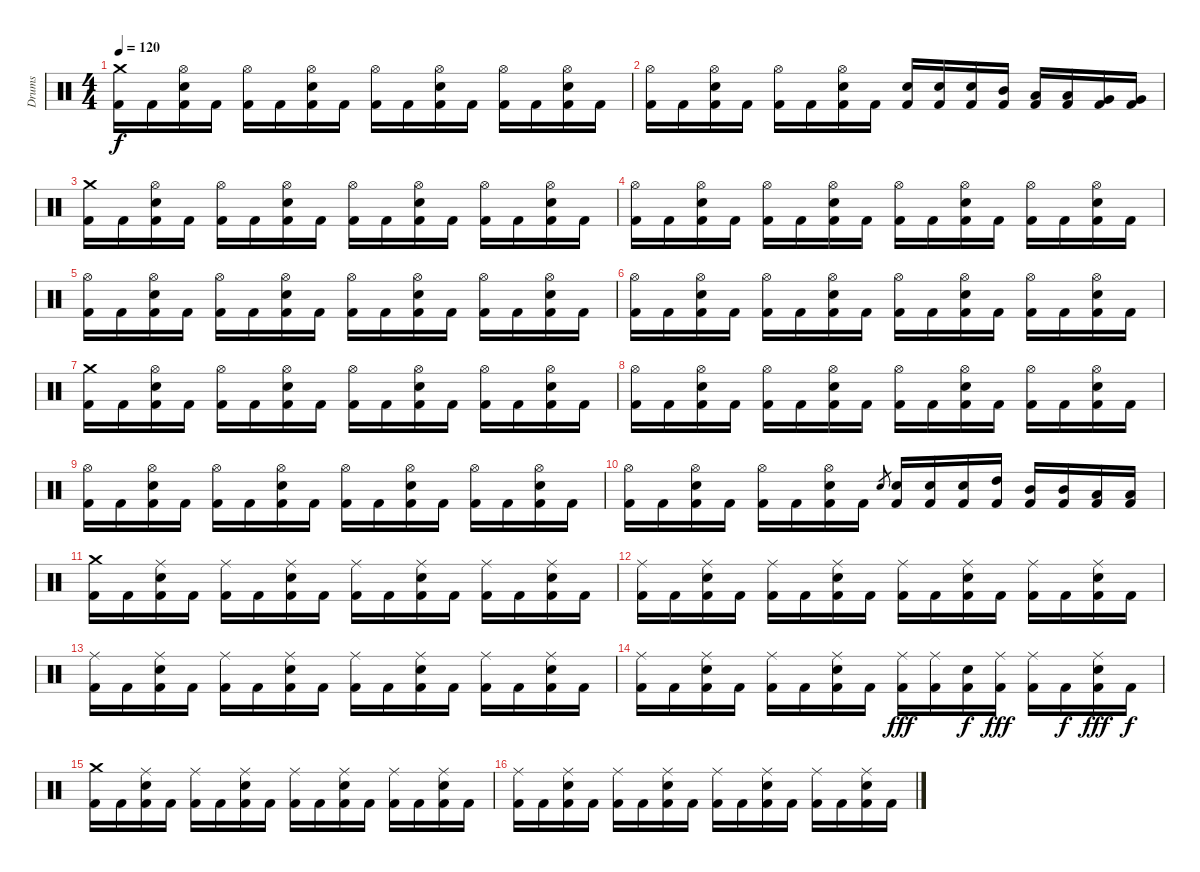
\track ("Drums" "Drums") {instrument percussion}
\staff {score}
\articulation defaults
\ts (4 4)
\tempo 120
\clef neutral
\ks c
("Kick (hit) 2" "Crash medium (hit)").16{dy f} "Kick (hit) 2".16 ("Kick (hit) 2" "Electric Snare (hit)" "Hi-Hat (open)").16 "Kick (hit) 2".16 ("Kick (hit) 2" "Hi-Hat (open)").16 "Kick (hit) 2".16 ("Kick (hit) 2" "Electric Snare (hit)" "Hi-Hat (open)").16 "Kick (hit) 2".16 ("Kick (hit) 2" "Hi-Hat (open)").16 "Kick (hit) 2".16 ("Kick (hit) 2" "Electric Snare (hit)" "Hi-Hat (open)").16 "Kick (hit) 2".16 ("Kick (hit) 2" "Hi-Hat (open)").16 "Kick (hit) 2".16 ("Kick (hit) 2" "Electric Snare (hit)" "Hi-Hat (open)").16 "Kick (hit) 2".16 |
("Kick (hit) 2" "Hi-Hat (open)").16 "Kick (hit) 2".16 ("Kick (hit) 2" "Electric Snare (hit)" "Hi-Hat (open)").16 "Kick (hit) 2".16 ("Kick (hit) 2" "Hi-Hat (open)").16 "Kick (hit) 2".16 ("Kick (hit) 2" "Electric Snare (hit)" "Hi-Hat (open)").16 "Kick (hit) 2".16 ("Kick (hit) 2" "Electric Snare (hit)").16 ("Kick (hit) 2" "Electric Snare (hit)").16 ("Kick (hit) 2" "Electric Snare (hit)").16 ("Kick (hit) 2" "Mid Tom (hit)").16 ("Kick (hit) 2" "Low Tom (hit)").16 ("Kick (hit) 2" "Low Tom (hit)").16 ("Kick (hit) 2" "Very Low Tom (hit)").16 ("Kick (hit) 2" "Very Low Tom (hit)").16 |
("Kick (hit) 2" "Crash medium (hit)").16 "Kick (hit) 2".16 ("Kick (hit) 2" "Electric Snare (hit)" "Hi-Hat (open)").16 "Kick (hit) 2".16 ("Kick (hit) 2" "Hi-Hat (open)").16 "Kick (hit) 2".16 ("Kick (hit) 2" "Electric Snare (hit)" "Hi-Hat (open)").16 "Kick (hit) 2".16 ("Kick (hit) 2" "Hi-Hat (open)").16 "Kick (hit) 2".16 ("Kick (hit) 2" "Electric Snare (hit)" "Hi-Hat (open)").16 "Kick (hit) 2".16 ("Kick (hit) 2" "Hi-Hat (open)").16 "Kick (hit) 2".16 ("Kick (hit) 2" "Electric Snare (hit)" "Hi-Hat (open)").16 "Kick (hit) 2".16 |
("Kick (hit) 2" "Hi-Hat (open)").16 "Kick (hit) 2".16 ("Kick (hit) 2" "Electric Snare (hit)" "Hi-Hat (open)").16 "Kick (hit) 2".16 ("Kick (hit) 2" "Hi-Hat (open)").16 "Kick (hit) 2".16 ("Kick (hit) 2" "Electric Snare (hit)" "Hi-Hat (open)").16 "Kick (hit) 2".16 ("Kick (hit) 2" "Hi-Hat (open)").16 "Kick (hit) 2".16 ("Kick (hit) 2" "Electric Snare (hit)" "Hi-Hat (open)").16 "Kick (hit) 2".16 ("Kick (hit) 2" "Hi-Hat (open)").16 "Kick (hit) 2".16 ("Kick (hit) 2" "Electric Snare (hit)" "Hi-Hat (open)").16 "Kick (hit) 2".16 |
("Kick (hit) 2" "Hi-Hat (open)").16 "Kick (hit) 2".16 ("Kick (hit) 2" "Electric Snare (hit)" "Hi-Hat (open)").16 "Kick (hit) 2".16 ("Kick (hit) 2" "Hi-Hat (open)").16 "Kick (hit) 2".16 ("Kick (hit) 2" "Electric Snare (hit)" "Hi-Hat (open)").16 "Kick (hit) 2".16 ("Kick (hit) 2" "Hi-Hat (open)").16 "Kick (hit) 2".16 ("Kick (hit) 2" "Electric Snare (hit)" "Hi-Hat (open)").16 "Kick (hit) 2".16 ("Kick (hit) 2" "Hi-Hat (open)").16 "Kick (hit) 2".16 ("Kick (hit) 2" "Electric Snare (hit)" "Hi-Hat (open)").16 "Kick (hit) 2".16 |
("Kick (hit) 2" "Hi-Hat (open)").16 "Kick (hit) 2".16 ("Kick (hit) 2" "Electric Snare (hit)" "Hi-Hat (open)").16 "Kick (hit) 2".16 ("Kick (hit) 2" "Hi-Hat (open)").16 "Kick (hit) 2".16 ("Kick (hit) 2" "Electric Snare (hit)" "Hi-Hat (open)").16 "Kick (hit) 2".16 ("Kick (hit) 2" "Hi-Hat (open)").16 "Kick (hit) 2".16 ("Kick (hit) 2" "Electric Snare (hit)" "Hi-Hat (open)").16 "Kick (hit) 2".16 ("Kick (hit) 2" "Hi-Hat (open)").16 "Kick (hit) 2".16 ("Kick (hit) 2" "Electric Snare (hit)" "Hi-Hat (open)").16 "Kick (hit) 2".16 |
("Kick (hit) 2" "Crash medium (hit)").16 "Kick (hit) 2".16 ("Kick (hit) 2" "Electric Snare (hit)" "Hi-Hat (open)").16 "Kick (hit) 2".16 ("Kick (hit) 2" "Hi-Hat (open)").16 "Kick (hit) 2".16 ("Kick (hit) 2" "Electric Snare (hit)" "Hi-Hat (open)").16 "Kick (hit) 2".16 ("Kick (hit) 2" "Hi-Hat (open)").16 "Kick (hit) 2".16 ("Kick (hit) 2" "Electric Snare (hit)" "Hi-Hat (open)").16 "Kick (hit) 2".16 ("Kick (hit) 2" "Hi-Hat (open)").16 "Kick (hit) 2".16 ("Kick (hit) 2" "Electric Snare (hit)" "Hi-Hat (open)").16 "Kick (hit) 2".16 |
("Kick (hit) 2" "Hi-Hat (open)").16 "Kick (hit) 2".16 ("Kick (hit) 2" "Electric Snare (hit)" "Hi-Hat (open)").16 "Kick (hit) 2".16 ("Kick (hit) 2" "Hi-Hat (open)").16 "Kick (hit) 2".16 ("Kick (hit) 2" "Electric Snare (hit)" "Hi-Hat (open)").16 "Kick (hit) 2".16 ("Kick (hit) 2" "Hi-Hat (open)").16 "Kick (hit) 2".16 ("Kick (hit) 2" "Electric Snare (hit)" "Hi-Hat (open)").16 "Kick (hit) 2".16 ("Kick (hit) 2" "Hi-Hat (open)").16 "Kick (hit) 2".16 ("Kick (hit) 2" "Electric Snare (hit)" "Hi-Hat (open)").16 "Kick (hit) 2".16 |
("Kick (hit) 2" "Hi-Hat (open)").16 "Kick (hit) 2".16 ("Kick (hit) 2" "Electric Snare (hit)" "Hi-Hat (open)").16 "Kick (hit) 2".16 ("Kick (hit) 2" "Hi-Hat (open)").16 "Kick (hit) 2".16 ("Kick (hit) 2" "Electric Snare (hit)" "Hi-Hat (open)").16 "Kick (hit) 2".16 ("Kick (hit) 2" "Hi-Hat (open)").16 "Kick (hit) 2".16 ("Kick (hit) 2" "Electric Snare (hit)" "Hi-Hat (open)").16 "Kick (hit) 2".16 ("Kick (hit) 2" "Hi-Hat (open)").16 "Kick (hit) 2".16 ("Kick (hit) 2" "Electric Snare (hit)" "Hi-Hat (open)").16 "Kick (hit) 2".16 |
("Kick (hit) 2" "Hi-Hat (open)").16 "Kick (hit) 2".16 ("Kick (hit) 2" "Electric Snare (hit)" "Hi-Hat (open)").16 "Kick (hit) 2".16 ("Kick (hit) 2" "Hi-Hat (open)").16 "Kick (hit) 2".16 ("Kick (hit) 2" "Electric Snare (hit)" "Hi-Hat (open)").16 "Kick (hit) 2".16 "Electric Snare (hit)".8{gr} ("Kick (hit) 2" "Electric Snare (hit)").16 ("Kick (hit) 2" "Electric Snare (hit)").16 ("Kick (hit) 2" "Electric Snare (hit)").16 ("Kick (hit) 2" "High Tom (hit)").16 ("Kick (hit) 2" "Mid Tom (hit)").16 ("Kick (hit) 2" "Mid Tom (hit)").16 ("Kick (hit) 2" "Low Tom (hit)").16 ("Kick (hit) 2" "Low Tom (hit)").16 |
("Kick (hit) 2" "Crash medium (hit)").16 "Kick (hit) 2".16 ("Kick (hit) 2" "Electric Snare (hit)" "Ride (middle)").16 "Kick (hit) 2".16 ("Kick (hit) 2" "Ride (middle)").16 "Kick (hit) 2".16 ("Kick (hit) 2" "Electric Snare (hit)" "Ride (middle)").16 "Kick (hit) 2".16 ("Kick (hit) 2" "Ride (middle)").16 "Kick (hit) 2".16 ("Kick (hit) 2" "Electric Snare (hit)" "Ride (middle)").16 "Kick (hit) 2".16 ("Kick (hit) 2" "Ride (middle)").16 "Kick (hit) 2".16 ("Kick (hit) 2" "Electric Snare (hit)" "Ride (middle)").16 "Kick (hit) 2".16 |
("Kick (hit) 2" "Ride (middle)").16 "Kick (hit) 2".16 ("Kick (hit) 2" "Electric Snare (hit)" "Ride (middle)").16 "Kick (hit) 2".16 ("Kick (hit) 2" "Ride (middle)").16 "Kick (hit) 2".16 ("Kick (hit) 2" "Electric Snare (hit)" "Ride (middle)").16 "Kick (hit) 2".16 ("Kick (hit) 2" "Ride (middle)").16 "Kick (hit) 2".16 ("Kick (hit) 2" "Electric Snare (hit)" "Ride (middle)").16 "Kick (hit) 2".16 ("Kick (hit) 2" "Ride (middle)").16 "Kick (hit) 2".16 ("Kick (hit) 2" "Electric Snare (hit)" "Ride (middle)").16 "Kick (hit) 2".16 |
("Kick (hit) 2" "Ride (middle)").16 "Kick (hit) 2".16 ("Kick (hit) 2" "Electric Snare (hit)" "Ride (middle)").16 "Kick (hit) 2".16 ("Kick (hit) 2" "Ride (middle)").16 "Kick (hit) 2".16 ("Kick (hit) 2" "Electric Snare (hit)" "Ride (middle)").16 "Kick (hit) 2".16 ("Kick (hit) 2" "Ride (middle)").16 "Kick (hit) 2".16 ("Kick (hit) 2" "Electric Snare (hit)" "Ride (middle)").16 "Kick (hit) 2".16 ("Kick (hit) 2" "Ride (middle)").16 "Kick (hit) 2".16 ("Kick (hit) 2" "Electric Snare (hit)" "Ride (middle)").16 "Kick (hit) 2".16 |
("Kick (hit) 2" "Ride (middle)").16 "Kick (hit) 2".16 ("Kick (hit) 2" "Electric Snare (hit)" "Ride (middle)").16 "Kick (hit) 2".16 ("Kick (hit) 2" "Ride (middle)").16 "Kick (hit) 2".16 ("Kick (hit) 2" "Electric Snare (hit)" "Ride (middle)").16 "Kick (hit) 2".16 ("Kick (hit) 2" "Ride (middle)").16{dy fff} ("Kick (hit) 2" "Ride (middle)").16 ("Kick (hit) 2" "Electric Snare (hit)").16{dy f} ("Kick (hit) 2" "Ride (middle)").16{dy fff} ("Kick (hit) 2" "Ride (middle)").16 "Kick (hit) 2".16{dy f} ("Kick (hit) 2" "Electric Snare (hit)" "Ride (middle)").16{dy fff} "Kick (hit) 2".16{dy f} |
("Kick (hit) 2" "Crash medium (hit)").16 "Kick (hit) 2".16 ("Kick (hit) 2" "Electric Snare (hit)" "Ride (middle)").16 "Kick (hit) 2".16 ("Kick (hit) 2" "Ride (middle)").16 "Kick (hit) 2".16 ("Kick (hit) 2" "Electric Snare (hit)" "Ride (middle)").16 "Kick (hit) 2".16 ("Kick (hit) 2" "Ride (middle)").16 "Kick (hit) 2".16 ("Kick (hit) 2" "Electric Snare (hit)" "Ride (middle)").16 "Kick (hit) 2".16 ("Kick (hit) 2" "Ride (middle)").16 "Kick (hit) 2".16 ("Kick (hit) 2" "Electric Snare (hit)" "Ride (middle)").16 "Kick (hit) 2".16 |
("Kick (hit) 2" "Ride (middle)").16 "Kick (hit) 2".16 ("Kick (hit) 2" "Electric Snare (hit)" "Ride (middle)").16 "Kick (hit) 2".16 ("Kick (hit) 2" "Ride (middle)").16 "Kick (hit) 2".16 ("Kick (hit) 2" "Electric Snare (hit)" "Ride (middle)").16 "Kick (hit) 2".16 ("Kick (hit) 2" "Ride (middle)").16 "Kick (hit) 2".16 ("Kick (hit) 2" "Electric Snare (hit)" "Ride (middle)").16 "Kick (hit) 2".16 ("Kick (hit) 2" "Ride (middle)").16 "Kick (hit) 2".16 ("Kick (hit) 2" "Electric Snare (hit)" "Ride (middle)").16 "Kick (hit) 2".16
